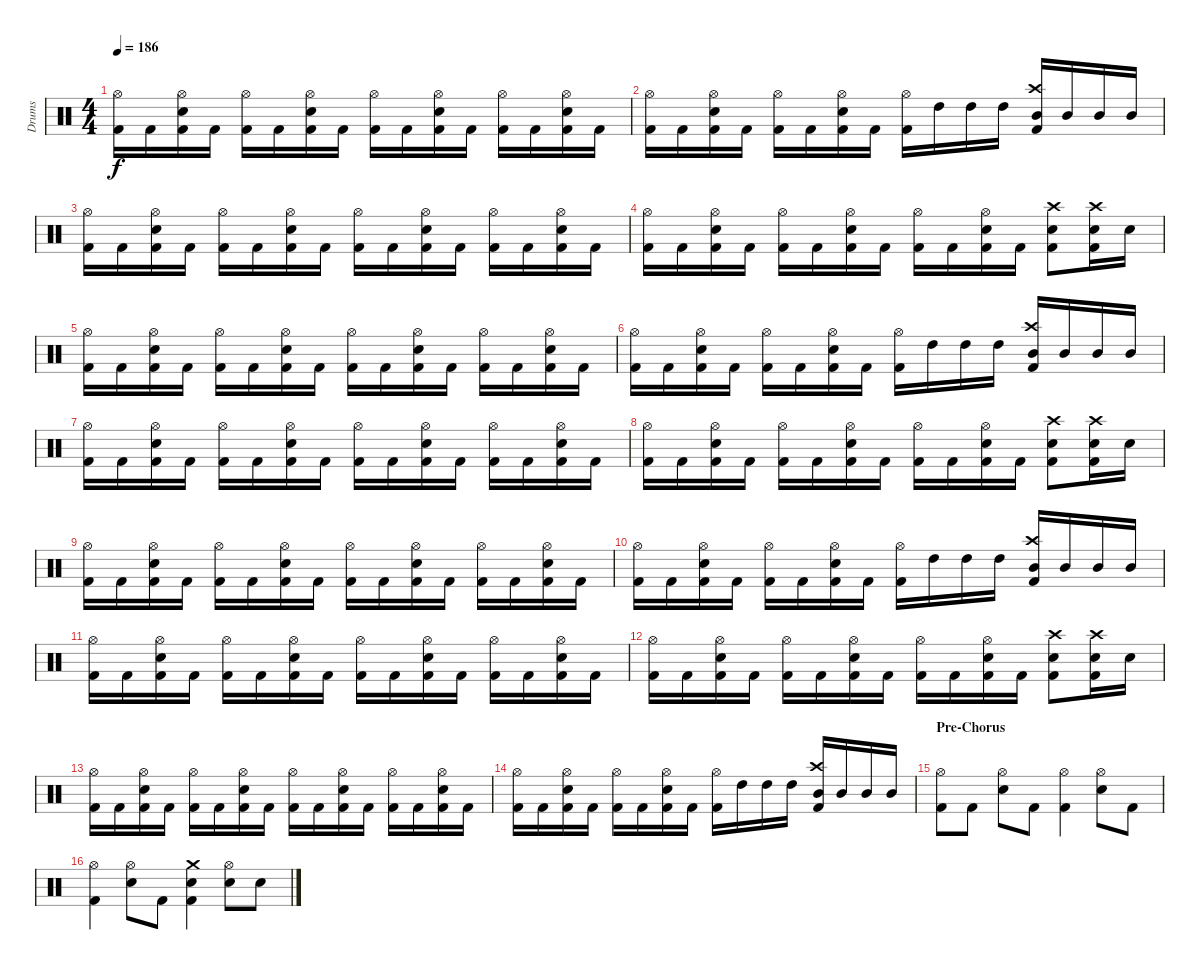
\track ("Drums" "Drums") {instrument percussion}
\staff {score}
\articulation defaults
\ts (4 4)
\tempo 186
\clef neutral
\ks c
("Hi-Hat (open)" "Kick (hit) 2").16{dy f} "Kick (hit) 2".16 ("Electric Snare (hit)" "Hi-Hat (open)" "Kick (hit) 2").16 "Kick (hit) 2".16 ("Hi-Hat (open)" "Kick (hit) 2").16 "Kick (hit) 2".16 ("Electric Snare (hit)" "Hi-Hat (open)" "Kick (hit) 2").16 "Kick (hit) 2".16 ("Hi-Hat (open)" "Kick (hit) 2").16 "Kick (hit) 2".16 ("Electric Snare (hit)" "Hi-Hat (open)" "Kick (hit) 2").16 "Kick (hit) 2".16 ("Hi-Hat (open)" "Kick (hit) 2").16 "Kick (hit) 2".16 ("Electric Snare (hit)" "Hi-Hat (open)" "Kick (hit) 2").16 "Kick (hit) 2".16 |
("Hi-Hat (open)" "Kick (hit) 2").16 "Kick (hit) 2".16 ("Electric Snare (hit)" "Hi-Hat (open)" "Kick (hit) 2").16 "Kick (hit) 2".16 ("Hi-Hat (open)" "Kick (hit) 2").16 "Kick (hit) 2".16 ("Electric Snare (hit)" "Hi-Hat (open)" "Kick (hit) 2").16 "Kick (hit) 2".16 ("Hi-Hat (open)" "Kick (hit) 2").16 "High Tom (hit)".16 "High Tom (hit)".16 "High Tom (hit)".16 ("Crash high (hit)" "Mid Tom (hit)" "Kick (hit) 2").16 "Mid Tom (hit)".16 "Mid Tom (hit)".16 "Mid Tom (hit)".16 |
("Hi-Hat (open)" "Kick (hit) 2").16 "Kick (hit) 2".16 ("Electric Snare (hit)" "Hi-Hat (open)" "Kick (hit) 2").16 "Kick (hit) 2".16 ("Hi-Hat (open)" "Kick (hit) 2").16 "Kick (hit) 2".16 ("Electric Snare (hit)" "Hi-Hat (open)" "Kick (hit) 2").16 "Kick (hit) 2".16 ("Hi-Hat (open)" "Kick (hit) 2").16 "Kick (hit) 2".16 ("Electric Snare (hit)" "Hi-Hat (open)" "Kick (hit) 2").16 "Kick (hit) 2".16 ("Hi-Hat (open)" "Kick (hit) 2").16 "Kick (hit) 2".16 ("Electric Snare (hit)" "Hi-Hat (open)" "Kick (hit) 2").16 "Kick (hit) 2".16 |
("Hi-Hat (open)" "Kick (hit) 2").16 "Kick (hit) 2".16 ("Electric Snare (hit)" "Hi-Hat (open)" "Kick (hit) 2").16 "Kick (hit) 2".16 ("Hi-Hat (open)" "Kick (hit) 2").16 "Kick (hit) 2".16 ("Electric Snare (hit)" "Hi-Hat (open)" "Kick (hit) 2").16 "Kick (hit) 2".16 ("Hi-Hat (open)" "Kick (hit) 2").16 "Kick (hit) 2".16 ("Electric Snare (hit)" "Hi-Hat (open)" "Kick (hit) 2").16 "Kick (hit) 2".16 ("Crash high (hit)" "Electric Snare (hit)" "Kick (hit) 2").8 ("Crash high (hit)" "Electric Snare (hit)" "Kick (hit) 2").16 "Electric Snare (hit)".16 |
("Hi-Hat (open)" "Kick (hit) 2").16 "Kick (hit) 2".16 ("Electric Snare (hit)" "Hi-Hat (open)" "Kick (hit) 2").16 "Kick (hit) 2".16 ("Hi-Hat (open)" "Kick (hit) 2").16 "Kick (hit) 2".16 ("Electric Snare (hit)" "Hi-Hat (open)" "Kick (hit) 2").16 "Kick (hit) 2".16 ("Hi-Hat (open)" "Kick (hit) 2").16 "Kick (hit) 2".16 ("Electric Snare (hit)" "Hi-Hat (open)" "Kick (hit) 2").16 "Kick (hit) 2".16 ("Hi-Hat (open)" "Kick (hit) 2").16 "Kick (hit) 2".16 ("Electric Snare (hit)" "Hi-Hat (open)" "Kick (hit) 2").16 "Kick (hit) 2".16 |
("Hi-Hat (open)" "Kick (hit) 2").16 "Kick (hit) 2".16 ("Electric Snare (hit)" "Hi-Hat (open)" "Kick (hit) 2").16 "Kick (hit) 2".16 ("Hi-Hat (open)" "Kick (hit) 2").16 "Kick (hit) 2".16 ("Electric Snare (hit)" "Hi-Hat (open)" "Kick (hit) 2").16 "Kick (hit) 2".16 ("Hi-Hat (open)" "Kick (hit) 2").16 "High Tom (hit)".16 "High Tom (hit)".16 "High Tom (hit)".16 ("Crash high (hit)" "Mid Tom (hit)" "Kick (hit) 2").16 "Mid Tom (hit)".16 "Mid Tom (hit)".16 "Mid Tom (hit)".16 |
("Hi-Hat (open)" "Kick (hit) 2").16 "Kick (hit) 2".16 ("Electric Snare (hit)" "Hi-Hat (open)" "Kick (hit) 2").16 "Kick (hit) 2".16 ("Hi-Hat (open)" "Kick (hit) 2").16 "Kick (hit) 2".16 ("Electric Snare (hit)" "Hi-Hat (open)" "Kick (hit) 2").16 "Kick (hit) 2".16 ("Hi-Hat (open)" "Kick (hit) 2").16 "Kick (hit) 2".16 ("Electric Snare (hit)" "Hi-Hat (open)" "Kick (hit) 2").16 "Kick (hit) 2".16 ("Hi-Hat (open)" "Kick (hit) 2").16 "Kick (hit) 2".16 ("Electric Snare (hit)" "Hi-Hat (open)" "Kick (hit) 2").16 "Kick (hit) 2".16 |
("Hi-Hat (open)" "Kick (hit) 2").16 "Kick (hit) 2".16 ("Electric Snare (hit)" "Hi-Hat (open)" "Kick (hit) 2").16 "Kick (hit) 2".16 ("Hi-Hat (open)" "Kick (hit) 2").16 "Kick (hit) 2".16 ("Electric Snare (hit)" "Hi-Hat (open)" "Kick (hit) 2").16 "Kick (hit) 2".16 ("Hi-Hat (open)" "Kick (hit) 2").16 "Kick (hit) 2".16 ("Electric Snare (hit)" "Hi-Hat (open)" "Kick (hit) 2").16 "Kick (hit) 2".16 ("Crash high (hit)" "Electric Snare (hit)" "Kick (hit) 2").8 ("Crash high (hit)" "Electric Snare (hit)" "Kick (hit) 2").16 "Electric Snare (hit)".16 |
("Hi-Hat (open)" "Kick (hit) 2").16 "Kick (hit) 2".16 ("Electric Snare (hit)" "Hi-Hat (open)" "Kick (hit) 2").16 "Kick (hit) 2".16 ("Hi-Hat (open)" "Kick (hit) 2").16 "Kick (hit) 2".16 ("Electric Snare (hit)" "Hi-Hat (open)" "Kick (hit) 2").16 "Kick (hit) 2".16 ("Hi-Hat (open)" "Kick (hit) 2").16 "Kick (hit) 2".16 ("Electric Snare (hit)" "Hi-Hat (open)" "Kick (hit) 2").16 "Kick (hit) 2".16 ("Hi-Hat (open)" "Kick (hit) 2").16 "Kick (hit) 2".16 ("Electric Snare (hit)" "Hi-Hat (open)" "Kick (hit) 2").16 "Kick (hit) 2".16 |
("Hi-Hat (open)" "Kick (hit) 2").16 "Kick (hit) 2".16 ("Electric Snare (hit)" "Hi-Hat (open)" "Kick (hit) 2").16 "Kick (hit) 2".16 ("Hi-Hat (open)" "Kick (hit) 2").16 "Kick (hit) 2".16 ("Electric Snare (hit)" "Hi-Hat (open)" "Kick (hit) 2").16 "Kick (hit) 2".16 ("Hi-Hat (open)" "Kick (hit) 2").16 "High Tom (hit)".16 "High Tom (hit)".16 "High Tom (hit)".16 ("Crash high (hit)" "Mid Tom (hit)" "Kick (hit) 2").16 "Mid Tom (hit)".16 "Mid Tom (hit)".16 "Mid Tom (hit)".16 |
("Hi-Hat (open)" "Kick (hit) 2").16 "Kick (hit) 2".16 ("Electric Snare (hit)" "Hi-Hat (open)" "Kick (hit) 2").16 "Kick (hit) 2".16 ("Hi-Hat (open)" "Kick (hit) 2").16 "Kick (hit) 2".16 ("Electric Snare (hit)" "Hi-Hat (open)" "Kick (hit) 2").16 "Kick (hit) 2".16 ("Hi-Hat (open)" "Kick (hit) 2").16 "Kick (hit) 2".16 ("Electric Snare (hit)" "Hi-Hat (open)" "Kick (hit) 2").16 "Kick (hit) 2".16 ("Hi-Hat (open)" "Kick (hit) 2").16 "Kick (hit) 2".16 ("Electric Snare (hit)" "Hi-Hat (open)" "Kick (hit) 2").16 "Kick (hit) 2".16 |
("Hi-Hat (open)" "Kick (hit) 2").16 "Kick (hit) 2".16 ("Electric Snare (hit)" "Hi-Hat (open)" "Kick (hit) 2").16 "Kick (hit) 2".16 ("Hi-Hat (open)" "Kick (hit) 2").16 "Kick (hit) 2".16 ("Electric Snare (hit)" "Hi-Hat (open)" "Kick (hit) 2").16 "Kick (hit) 2".16 ("Hi-Hat (open)" "Kick (hit) 2").16 "Kick (hit) 2".16 ("Electric Snare (hit)" "Hi-Hat (open)" "Kick (hit) 2").16 "Kick (hit) 2".16 ("Crash high (hit)" "Electric Snare (hit)" "Kick (hit) 2").8 ("Crash high (hit)" "Electric Snare (hit)" "Kick (hit) 2").16 "Electric Snare (hit)".16 |
("Hi-Hat (open)" "Kick (hit) 2").16 "Kick (hit) 2".16 ("Electric Snare (hit)" "Hi-Hat (open)" "Kick (hit) 2").16 "Kick (hit) 2".16 ("Hi-Hat (open)" "Kick (hit) 2").16 "Kick (hit) 2".16 ("Electric Snare (hit)" "Hi-Hat (open)" "Kick (hit) 2").16 "Kick (hit) 2".16 ("Hi-Hat (open)" "Kick (hit) 2").16 "Kick (hit) 2".16 ("Electric Snare (hit)" "Hi-Hat (open)" "Kick (hit) 2").16 "Kick (hit) 2".16 ("Hi-Hat (open)" "Kick (hit) 2").16 "Kick (hit) 2".16 ("Electric Snare (hit)" "Hi-Hat (open)" "Kick (hit) 2").16 "Kick (hit) 2".16 |
("Hi-Hat (open)" "Kick (hit) 2").16 "Kick (hit) 2".16 ("Electric Snare (hit)" "Hi-Hat (open)" "Kick (hit) 2").16 "Kick (hit) 2".16 ("Hi-Hat (open)" "Kick (hit) 2").16 "Kick (hit) 2".16 ("Electric Snare (hit)" "Hi-Hat (open)" "Kick (hit) 2").16 "Kick (hit) 2".16 ("Hi-Hat (open)" "Kick (hit) 2").16 "High Tom (hit)".16 "High Tom (hit)".16 "High Tom (hit)".16 ("Crash high (hit)" "Mid Tom (hit)" "Kick (hit) 2").16 "Mid Tom (hit)".16 "Mid Tom (hit)".16 "Mid Tom (hit)".16 |
\section ("" "Pre-Chorus")
("Hi-Hat (open)" "Kick (hit) 2").8 "Kick (hit) 2".8 ("Hi-Hat (open)" "Electric Snare (hit)").8 "Kick (hit) 2".8 ("Hi-Hat (open)" "Kick (hit) 2").4 ("Hi-Hat (open)" "Electric Snare (hit)").8 "Kick (hit) 2".8 |
("Hi-Hat (open)" "Kick (hit) 2").4 ("Hi-Hat (open)" "Electric Snare (hit)").8 "Kick (hit) 2".8 ("Crash medium (hit)" "Electric Snare (hit)" "Kick (hit) 2").4 ("Hi-Hat (open)" "Electric Snare (hit)").8 "Electric Snare (hit)".8
